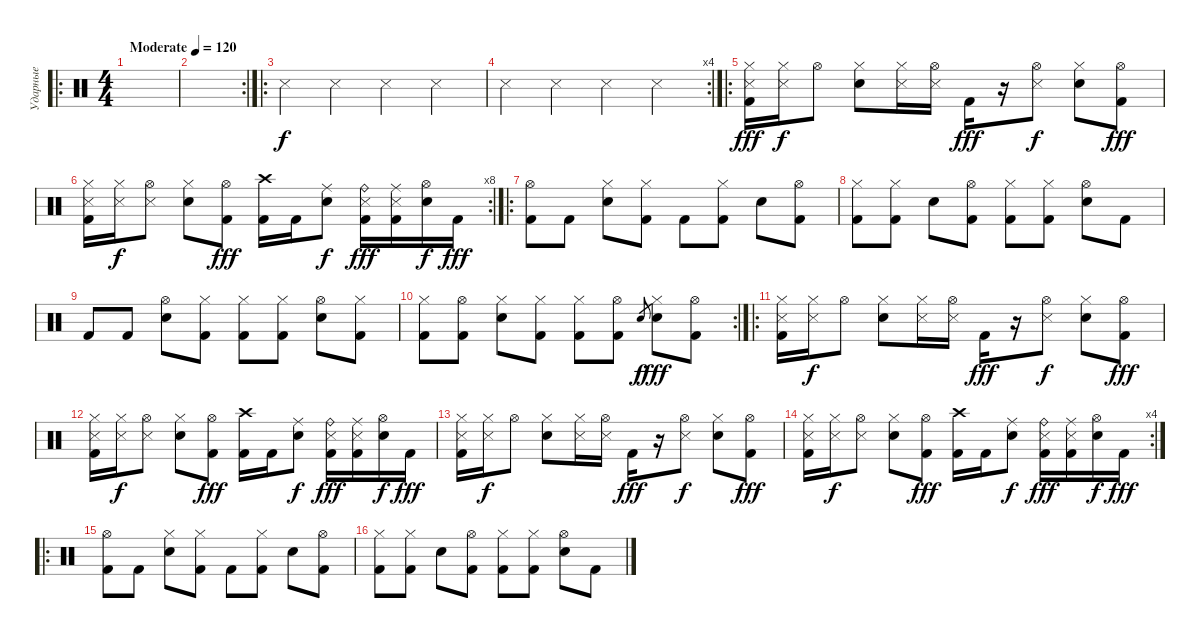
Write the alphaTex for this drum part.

\track ("Ударные" "Ударные") {instrument percussion}
\staff {score}
\articulation defaults
\ro
\ts (4 4)
\tempo (120 "Moderate")
\clef neutral
\ks c
|
\rc 2
|
\ro "Snare (side stick) 3".4 "Snare (side stick) 3".4 "Snare (side stick) 3".4 "Snare (side stick) 3".4
|
\rc 4 "Snare (side stick) 3".4 "Snare (side stick) 3".4 "Snare (side stick) 3".4 "Snare (side stick) 3".4
|
\ro
("Hi-Hat (closed)" "Snare (side stick) 3" "Kick (hit) 2").16{dy fff} ("Hi-Hat (closed)" "Snare (side stick) 3").16{dy f} "Hi-Hat (open)".8 ("Hi-Hat (closed)" "Electric Snare (hit)").8 ("Hi-Hat (closed)" "Snare (side stick) 3").16 ("Hi-Hat (open)" "Snare (side stick) 3").16 "Kick (hit) 2".16{dy fff} r.16 ("Hi-Hat (open)" "Snare (side stick) 3").8{dy f} ("Hi-Hat (closed)" "Electric Snare (hit)").8 ("Hi-Hat (open)" "Kick (hit) 2").8{dy fff} |
\rc 8
("Hi-Hat (closed)" "Snare (side stick) 3" "Kick (hit) 2").16 ("Hi-Hat (closed)" "Snare (side stick) 3").16{dy f} ("Hi-Hat (open)" "Snare (side stick) 3").8 ("Hi-Hat (closed)" "Electric Snare (hit)").8 ("Hi-Hat (open)" "Kick (hit) 2").8{dy fff} ("Crash high (hit)" "Kick (hit) 2").16 "Kick (hit) 2".16 ("Ride (middle)" "Electric Snare (hit)").8{dy f} ("Ride (bell)" "Snare (side stick) 3" "Kick (hit) 2").16{dy fff} ("Ride (middle)" "Snare (side stick) 3" "Kick (hit) 2").16 ("Hi-Hat (open)" "Electric Snare (hit)").16{dy f} "Kick (hit) 2".16{dy fff} |
\ro
("Hi-Hat (open)" "Kick (hit) 2").8 "Kick (hit) 2".8 ("Hi-Hat (closed)" "Electric Snare (hit)").8 ("Hi-Hat (closed)" "Kick (hit) 2").8 "Kick (hit) 2".8 ("Hi-Hat (closed)" "Kick (hit) 2").8 "Electric Snare (hit)".8 ("Hi-Hat (open)" "Kick (hit) 2").8 |
("Hi-Hat (closed)" "Kick (hit) 2").8 ("Hi-Hat (closed)" "Kick (hit) 2").8 "Electric Snare (hit)".8 ("Hi-Hat (open)" "Kick (hit) 2").8 ("Hi-Hat (closed)" "Kick (hit) 2").8 ("Hi-Hat (closed)" "Kick (hit) 2").8 ("Hi-Hat (open)" "Electric Snare (hit)").8 "Kick (hit) 2".8 |
"Kick (hit) 2".8 "Kick (hit) 2".8 ("Hi-Hat (open)" "Electric Snare (hit)").8 ("Hi-Hat (closed)" "Kick (hit) 2").8 ("Hi-Hat (closed)" "Kick (hit) 2").8 ("Hi-Hat (closed)" "Kick (hit) 2").8 ("Hi-Hat (open)" "Electric Snare (hit)").8 ("Hi-Hat (closed)" "Kick (hit) 2").8 |
\rc 2
("Hi-Hat (closed)" "Kick (hit) 2").8 ("Hi-Hat (open)" "Kick (hit) 2").8 ("Hi-Hat (closed)" "Electric Snare (hit)").8 ("Hi-Hat (closed)" "Kick (hit) 2").8 ("Hi-Hat (closed)" "Kick (hit) 2").8 ("Hi-Hat (open)" "Kick (hit) 2").8 "Electric Snare (hit)".8{gr dy f} ("Hi-Hat (closed)" "Electric Snare (hit)").8{dy fff} ("Hi-Hat (open)" "Kick (hit) 2").8 |
\ro
("Hi-Hat (closed)" "Snare (side stick) 3" "Kick (hit) 2").16 ("Hi-Hat (closed)" "Snare (side stick) 3").16{dy f} "Hi-Hat (open)".8 ("Hi-Hat (closed)" "Electric Snare (hit)").8 ("Hi-Hat (closed)" "Snare (side stick) 3").16 ("Hi-Hat (open)" "Snare (side stick) 3").16 "Kick (hit) 2".16{dy fff} r.16 ("Hi-Hat (open)" "Snare (side stick) 3").8{dy f} ("Hi-Hat (closed)" "Electric Snare (hit)").8 ("Hi-Hat (open)" "Kick (hit) 2").8{dy fff} |
("Hi-Hat (closed)" "Snare (side stick) 3" "Kick (hit) 2").16 ("Hi-Hat (closed)" "Snare (side stick) 3").16{dy f} ("Hi-Hat (open)" "Snare (side stick) 3").8 ("Hi-Hat (closed)" "Electric Snare (hit)").8 ("Hi-Hat (open)" "Kick (hit) 2").8{dy fff} ("Crash high (hit)" "Kick (hit) 2").16 "Kick (hit) 2".16 ("Ride (middle)" "Electric Snare (hit)").8{dy f} ("Ride (bell)" "Snare (side stick) 3" "Kick (hit) 2").16{dy fff} ("Ride (middle)" "Snare (side stick) 3" "Kick (hit) 2").16 ("Hi-Hat (open)" "Electric Snare (hit)").16{dy f} "Kick (hit) 2".16{dy fff} |
("Hi-Hat (closed)" "Snare (side stick) 3" "Kick (hit) 2").16 ("Hi-Hat (closed)" "Snare (side stick) 3").16{dy f} "Hi-Hat (open)".8 ("Hi-Hat (closed)" "Electric Snare (hit)").8 ("Hi-Hat (closed)" "Snare (side stick) 3").16 ("Hi-Hat (open)" "Snare (side stick) 3").16 "Kick (hit) 2".16{dy fff} r.16 ("Hi-Hat (open)" "Snare (side stick) 3").8{dy f} ("Hi-Hat (closed)" "Electric Snare (hit)").8 ("Hi-Hat (open)" "Kick (hit) 2").8{dy fff} |
\rc 4
("Hi-Hat (closed)" "Snare (side stick) 3" "Kick (hit) 2").16 ("Hi-Hat (closed)" "Snare (side stick) 3").16{dy f} ("Hi-Hat (open)" "Snare (side stick) 3").8 ("Hi-Hat (closed)" "Electric Snare (hit)").8 ("Hi-Hat (open)" "Kick (hit) 2").8{dy fff} ("Crash high (hit)" "Kick (hit) 2").16 "Kick (hit) 2".16 ("Ride (middle)" "Electric Snare (hit)").8{dy f} ("Ride (bell)" "Snare (side stick) 3" "Kick (hit) 2").16{dy fff} ("Ride (middle)" "Snare (side stick) 3" "Kick (hit) 2").16 ("Hi-Hat (open)" "Electric Snare (hit)").16{dy f} "Kick (hit) 2".16{dy fff} |
\ro
("Hi-Hat (open)" "Kick (hit) 2").8 "Kick (hit) 2".8 ("Hi-Hat (closed)" "Electric Snare (hit)").8 ("Hi-Hat (closed)" "Kick (hit) 2").8 "Kick (hit) 2".8 ("Hi-Hat (closed)" "Kick (hit) 2").8 "Electric Snare (hit)".8 ("Hi-Hat (open)" "Kick (hit) 2").8 |
("Hi-Hat (closed)" "Kick (hit) 2").8 ("Hi-Hat (closed)" "Kick (hit) 2").8 "Electric Snare (hit)".8 ("Hi-Hat (open)" "Kick (hit) 2").8 ("Hi-Hat (closed)" "Kick (hit) 2").8 ("Hi-Hat (closed)" "Kick (hit) 2").8 ("Hi-Hat (open)" "Electric Snare (hit)").8 "Kick (hit) 2".8
